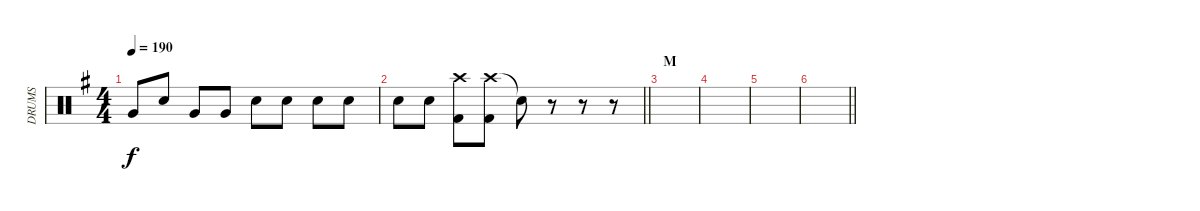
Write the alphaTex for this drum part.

\track ("DRUMS" "DRUMS") {instrument percussion}
\staff {score}
\articulation defaults
\ts (4 4)
\tempo 190
\clef neutral
\ks g "Very Low Tom (hit)".8{dy f} "Snare (hit) 2".8 "Very Low Tom (hit)".8 "Very Low Tom (hit)".8 "Snare (hit) 2".8 "Snare (hit) 2".8 "Snare (hit) 2".8 "Snare (hit) 2".8
|
\barLineRight lightlight "Snare (hit) 2".8 "Snare (hit) 2".8
("Crash high (hit)" "Kick (hit) 2").8 ("Crash high (hit)" "Kick (hit) 2").8 "Snare (hit)"{t}.8 r.8 r.8 r.8 |
\section ("" "M")
|
|
|
\barLineRight lightlight
